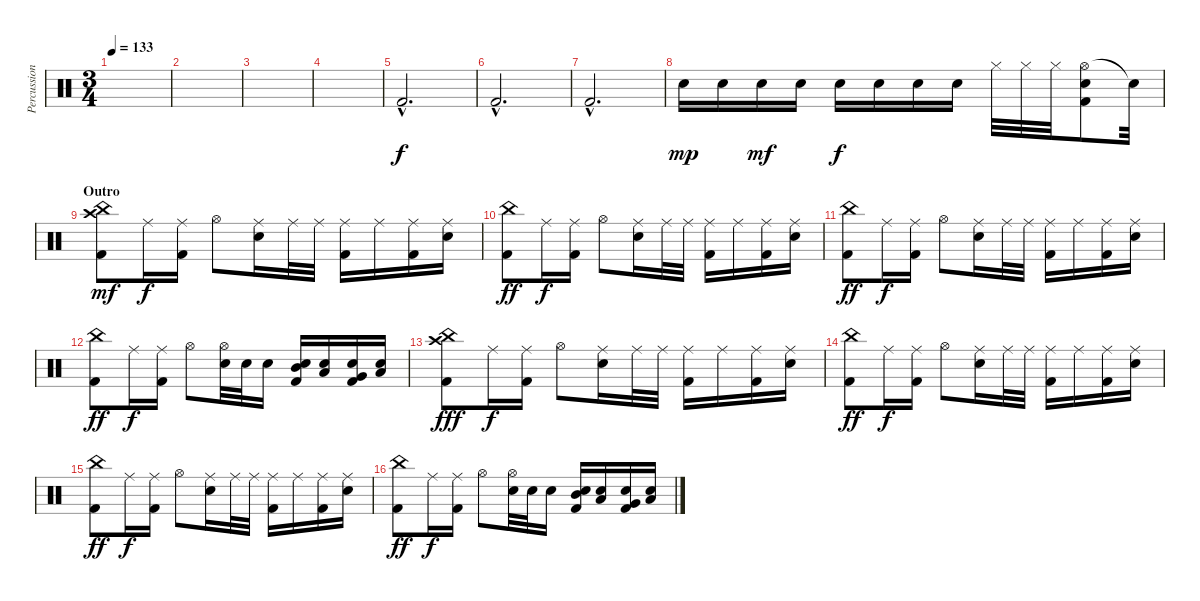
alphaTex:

\track ("Percussion" "Percussion") {instrument percussion}
\staff {score}
\articulation defaults
\ts (3 4)
\tempo 133
\clef neutral
\ks c
|
|
|
|
"Kick (hit) 2"{hac}.2{d} |
"Kick (hit) 2"{hac}.2{d} |
"Kick (hit) 2"{hac}.2{d} |
"Electric Snare (hit)".16{dy mp} "Electric Snare (hit)".16 "Electric Snare (hit)".16{dy mf} "Electric Snare (hit)".16 "Electric Snare (hit)".16{dy f} "Electric Snare (hit)".16 "Electric Snare (hit)".16 "Electric Snare (hit)".16 "Hi-Hat (closed)".32 "Hi-Hat (closed)".32 "Hi-Hat (closed)".32 ("Hi-Hat (open)" "Electric Snare (hit)" "Kick (hit) 2").8 "Snare (hit)"{t}.32 |
\section ("" "Outro ")
("China (hit)" "Crash high (hit)" "Kick (hit) 2").8{dy mf} "Ride (middle)".16{dy f} ("Ride (middle)" "Kick (hit) 2").16 "Hi-Hat (open)".8 ("Ride (middle)" "Electric Snare (hit)").16 "Ride (middle)".32 "Ride (middle)".32 ("Ride (middle)" "Kick (hit) 2").16 "Ride (middle)".16 ("Ride (middle)" "Kick (hit) 2").16 ("Ride (middle)" "Electric Snare (hit)").16 |
("China (hit)" "Kick (hit) 2").8{dy ff} "Ride (middle)".16{dy f} ("Ride (middle)" "Kick (hit) 2").16 "Hi-Hat (open)".8 ("Ride (middle)" "Electric Snare (hit)").16 "Ride (middle)".32 "Ride (middle)".32 ("Ride (middle)" "Kick (hit) 2").16 "Ride (middle)".16 ("Ride (middle)" "Kick (hit) 2").16 ("Ride (middle)" "Electric Snare (hit)").16 |
("China (hit)" "Kick (hit) 2").8{dy ff} "Ride (middle)".16{dy f} ("Ride (middle)" "Kick (hit) 2").16 "Hi-Hat (open)".8 ("Ride (middle)" "Electric Snare (hit)").16 "Ride (middle)".32 "Ride (middle)".32 ("Ride (middle)" "Kick (hit) 2").16 "Ride (middle)".16 ("Ride (middle)" "Kick (hit) 2").16 ("Ride (middle)" "Electric Snare (hit)").16 |
("China (hit)" "Kick (hit) 2").8{dy ff} "Ride (middle)".16{dy f} ("Ride (middle)" "Kick (hit) 2").16 "Hi-Hat (open)".8 ("Electric Snare (hit)" "Hi-Hat (open)").32 "Electric Snare (hit)".32 "Electric Snare (hit)".16 ("Electric Snare (hit)" "Mid Tom (hit)" "Kick (hit) 2").16 ("Electric Snare (hit)" "Low Tom (hit)").16 ("Electric Snare (hit)" "Very Low Tom (hit)" "Kick (hit) 2").16 ("Electric Snare (hit)" "Low Floor Tom (hit)").16 |
("China (hit)" "Crash high (hit)" "Kick (hit) 2").8{dy fff} "Ride (middle)".16{dy f} ("Ride (middle)" "Kick (hit) 2").16 "Hi-Hat (open)".8 ("Ride (middle)" "Electric Snare (hit)").16 "Ride (middle)".32 "Ride (middle)".32 ("Ride (middle)" "Kick (hit) 2").16 "Ride (middle)".16 ("Ride (middle)" "Kick (hit) 2").16 ("Ride (middle)" "Electric Snare (hit)").16 |
("China (hit)" "Kick (hit) 2").8{dy ff} "Ride (middle)".16{dy f} ("Ride (middle)" "Kick (hit) 2").16 "Hi-Hat (open)".8 ("Ride (middle)" "Electric Snare (hit)").16 "Ride (middle)".32 "Ride (middle)".32 ("Ride (middle)" "Kick (hit) 2").16 "Ride (middle)".16 ("Ride (middle)" "Kick (hit) 2").16 ("Ride (middle)" "Electric Snare (hit)").16 |
("China (hit)" "Kick (hit) 2").8{dy ff} "Ride (middle)".16{dy f} ("Ride (middle)" "Kick (hit) 2").16 "Hi-Hat (open)".8 ("Ride (middle)" "Electric Snare (hit)").16 "Ride (middle)".32 "Ride (middle)".32 ("Ride (middle)" "Kick (hit) 2").16 "Ride (middle)".16 ("Ride (middle)" "Kick (hit) 2").16 ("Ride (middle)" "Electric Snare (hit)").16 |
("China (hit)" "Kick (hit) 2").8{dy ff} "Ride (middle)".16{dy f} ("Ride (middle)" "Kick (hit) 2").16 "Hi-Hat (open)".8 ("Electric Snare (hit)" "Hi-Hat (open)").32 "Electric Snare (hit)".32 "Electric Snare (hit)".16 ("Electric Snare (hit)" "Mid Tom (hit)" "Kick (hit) 2").16 ("Electric Snare (hit)" "Low Tom (hit)").16 ("Electric Snare (hit)" "Very Low Tom (hit)" "Kick (hit) 2").16 ("Electric Snare (hit)" "Low Floor Tom (hit)").16
